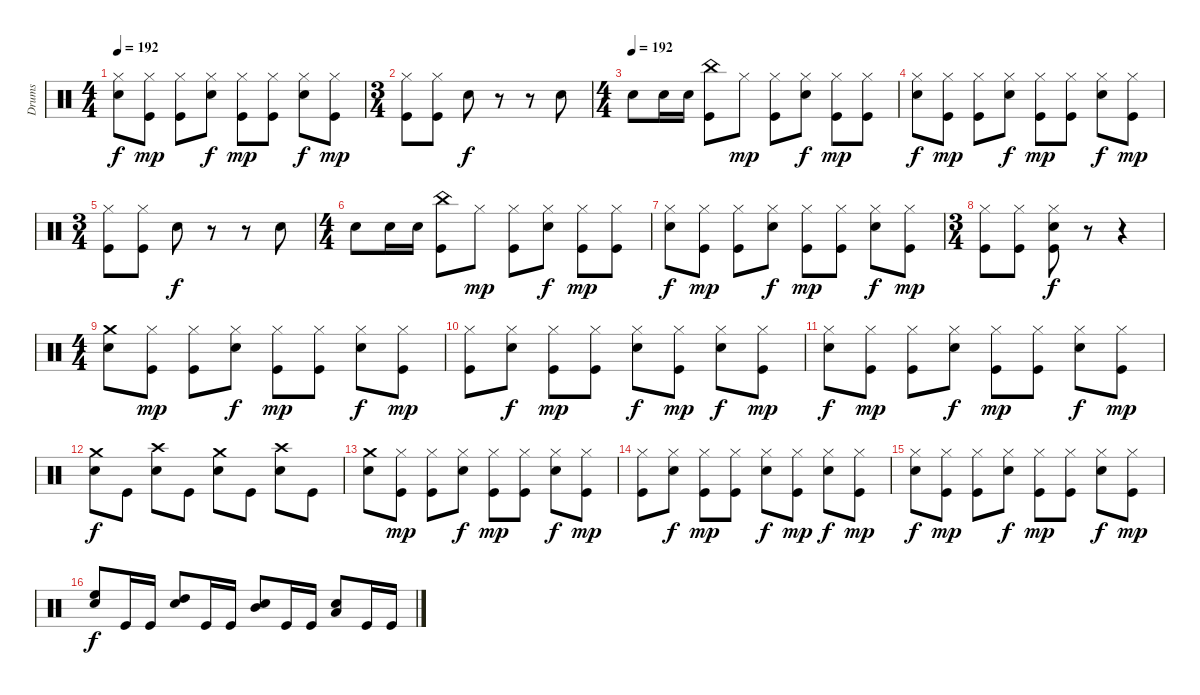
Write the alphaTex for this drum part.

\track ("Drums" "Drums") {instrument percussion}
\staff {score}
\articulation defaults
\ts (4 4)
\tempo 192
\clef neutral
\ks c
("Hi-Hat (closed)" "Electric Snare (hit)").8{dy f} ("Hi-Hat (closed)" "Kick (hit)").8{dy mp} ("Hi-Hat (closed)" "Kick (hit)").8 ("Hi-Hat (closed)" "Electric Snare (hit)").8{dy f} ("Hi-Hat (closed)" "Kick (hit)").8{dy mp} ("Hi-Hat (closed)" "Kick (hit)").8 ("Hi-Hat (closed)" "Electric Snare (hit)").8{dy f} ("Hi-Hat (closed)" "Kick (hit)").8{dy mp} |
\ts (3 4)
("Hi-Hat (closed)" "Kick (hit)").8 ("Hi-Hat (closed)" "Kick (hit)").8 "Electric Snare (hit)".8{dy f} r.8 r.8 "Electric Snare (hit)".8 |
\ts (4 4)
\tempo (192)
"Electric Snare (hit)".8 "Electric Snare (hit)".16 "Electric Snare (hit)".16 ("China (hit)" "Kick (hit)").8 "Hi-Hat (closed)".8{dy mp} ("Hi-Hat (closed)" "Kick (hit)").8 ("Hi-Hat (closed)" "Electric Snare (hit)").8{dy f} ("Hi-Hat (closed)" "Kick (hit)").8{dy mp} ("Hi-Hat (closed)" "Kick (hit)").8 |
("Hi-Hat (closed)" "Electric Snare (hit)").8{dy f} ("Hi-Hat (closed)" "Kick (hit)").8{dy mp} ("Hi-Hat (closed)" "Kick (hit)").8 ("Hi-Hat (closed)" "Electric Snare (hit)").8{dy f} ("Hi-Hat (closed)" "Kick (hit)").8{dy mp} ("Hi-Hat (closed)" "Kick (hit)").8 ("Hi-Hat (closed)" "Electric Snare (hit)").8{dy f} ("Hi-Hat (closed)" "Kick (hit)").8{dy mp} |
\ts (3 4)
("Hi-Hat (closed)" "Kick (hit)").8 ("Hi-Hat (closed)" "Kick (hit)").8 "Electric Snare (hit)".8{dy f} r.8 r.8 "Electric Snare (hit)".8 |
\ts (4 4)
"Electric Snare (hit)".8 "Electric Snare (hit)".16 "Electric Snare (hit)".16 ("China (hit)" "Kick (hit)").8 "Hi-Hat (closed)".8{dy mp} ("Hi-Hat (closed)" "Kick (hit)").8 ("Hi-Hat (closed)" "Electric Snare (hit)").8{dy f} ("Hi-Hat (closed)" "Kick (hit)").8{dy mp} ("Hi-Hat (closed)" "Kick (hit)").8 |
("Hi-Hat (closed)" "Electric Snare (hit)").8{dy f} ("Hi-Hat (closed)" "Kick (hit)").8{dy mp} ("Hi-Hat (closed)" "Kick (hit)").8 ("Hi-Hat (closed)" "Electric Snare (hit)").8{dy f} ("Hi-Hat (closed)" "Kick (hit)").8{dy mp} ("Hi-Hat (closed)" "Kick (hit)").8 ("Hi-Hat (closed)" "Electric Snare (hit)").8{dy f} ("Hi-Hat (closed)" "Kick (hit)").8{dy mp} |
\ts (3 4)
("Hi-Hat (closed)" "Kick (hit)").8 ("Hi-Hat (closed)" "Kick (hit)").8 ("Hi-Hat (closed)" "Electric Snare (hit)" "Kick (hit)").8{dy f} r.8 r.4 |
\ts (4 4)
("Crash medium (hit)" "Electric Snare (hit)").8 ("Hi-Hat (closed)" "Kick (hit)").8{dy mp} ("Hi-Hat (closed)" "Kick (hit)").8 ("Hi-Hat (closed)" "Electric Snare (hit)").8{dy f} ("Hi-Hat (closed)" "Kick (hit)").8{dy mp} ("Hi-Hat (closed)" "Kick (hit)").8 ("Hi-Hat (closed)" "Electric Snare (hit)").8{dy f} ("Hi-Hat (closed)" "Kick (hit)").8{dy mp} |
("Hi-Hat (closed)" "Kick (hit)").8 ("Hi-Hat (closed)" "Electric Snare (hit)").8{dy f} ("Hi-Hat (closed)" "Kick (hit)").8{dy mp} ("Hi-Hat (closed)" "Kick (hit)").8 ("Hi-Hat (closed)" "Electric Snare (hit)").8{dy f} ("Hi-Hat (closed)" "Kick (hit)").8{dy mp} ("Hi-Hat (closed)" "Electric Snare (hit)").8{dy f} ("Hi-Hat (closed)" "Kick (hit)").8{dy mp} |
("Hi-Hat (closed)" "Electric Snare (hit)").8{dy f} ("Hi-Hat (closed)" "Kick (hit)").8{dy mp} ("Hi-Hat (closed)" "Kick (hit)").8 ("Hi-Hat (closed)" "Electric Snare (hit)").8{dy f} ("Hi-Hat (closed)" "Kick (hit)").8{dy mp} ("Hi-Hat (closed)" "Kick (hit)").8 ("Hi-Hat (closed)" "Electric Snare (hit)").8{dy f} ("Hi-Hat (closed)" "Kick (hit)").8{dy mp} |
("Crash medium (hit)" "Electric Snare (hit)").8{dy f} "Kick (hit)".8 ("Crash high (hit)" "Electric Snare (hit)").8 "Kick (hit)".8 ("Crash medium (hit)" "Electric Snare (hit)").8 "Kick (hit)".8 ("Crash high (hit)" "Electric Snare (hit)").8 "Kick (hit)".8 |
("Crash medium (hit)" "Electric Snare (hit)").8 ("Hi-Hat (closed)" "Kick (hit)").8{dy mp} ("Hi-Hat (closed)" "Kick (hit)").8 ("Hi-Hat (closed)" "Electric Snare (hit)").8{dy f} ("Hi-Hat (closed)" "Kick (hit)").8{dy mp} ("Hi-Hat (closed)" "Kick (hit)").8 ("Hi-Hat (closed)" "Electric Snare (hit)").8{dy f} ("Hi-Hat (closed)" "Kick (hit)").8{dy mp} |
("Hi-Hat (closed)" "Kick (hit)").8 ("Hi-Hat (closed)" "Electric Snare (hit)").8{dy f} ("Hi-Hat (closed)" "Kick (hit)").8{dy mp} ("Hi-Hat (closed)" "Kick (hit)").8 ("Hi-Hat (closed)" "Electric Snare (hit)").8{dy f} ("Hi-Hat (closed)" "Kick (hit)").8{dy mp} ("Hi-Hat (closed)" "Electric Snare (hit)").8{dy f} ("Hi-Hat (closed)" "Kick (hit)").8{dy mp} |
("Hi-Hat (closed)" "Electric Snare (hit)").8{dy f} ("Hi-Hat (closed)" "Kick (hit)").8{dy mp} ("Hi-Hat (closed)" "Kick (hit)").8 ("Hi-Hat (closed)" "Electric Snare (hit)").8{dy f} ("Hi-Hat (closed)" "Kick (hit)").8{dy mp} ("Hi-Hat (closed)" "Kick (hit)").8 ("Hi-Hat (closed)" "Electric Snare (hit)").8{dy f} ("Hi-Hat (closed)" "Kick (hit)").8{dy mp} |
("High Floor Tom (hit)" "Electric Snare (hit)").8{dy f} "Kick (hit)".16 "Kick (hit)".16 ("High Tom (hit)" "Electric Snare (hit)").8 "Kick (hit)".16 "Kick (hit)".16 ("Electric Snare (hit)" "Mid Tom (hit)").8 "Kick (hit)".16 "Kick (hit)".16 ("Electric Snare (hit)" "Low Tom (hit)").8 "Kick (hit)".16 "Kick (hit)".16
